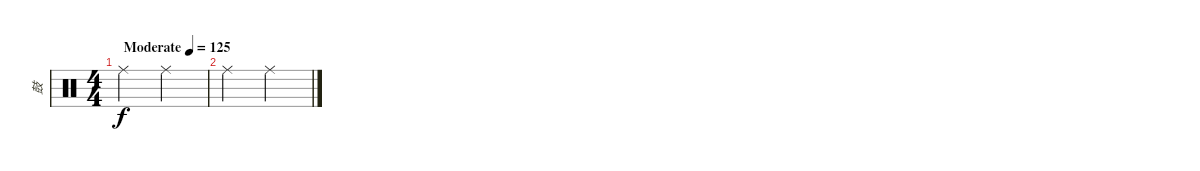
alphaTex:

\track ("鼓" "鼓") {instrument percussion}
\staff {score}
\articulation defaults
\ts (4 4)
\tempo (125 "Moderate")
\clef neutral
\ks c "Ride (middle)".2{dy f} "Ride (middle)".2
|
"Ride (middle)".2 "Ride (middle)".2
